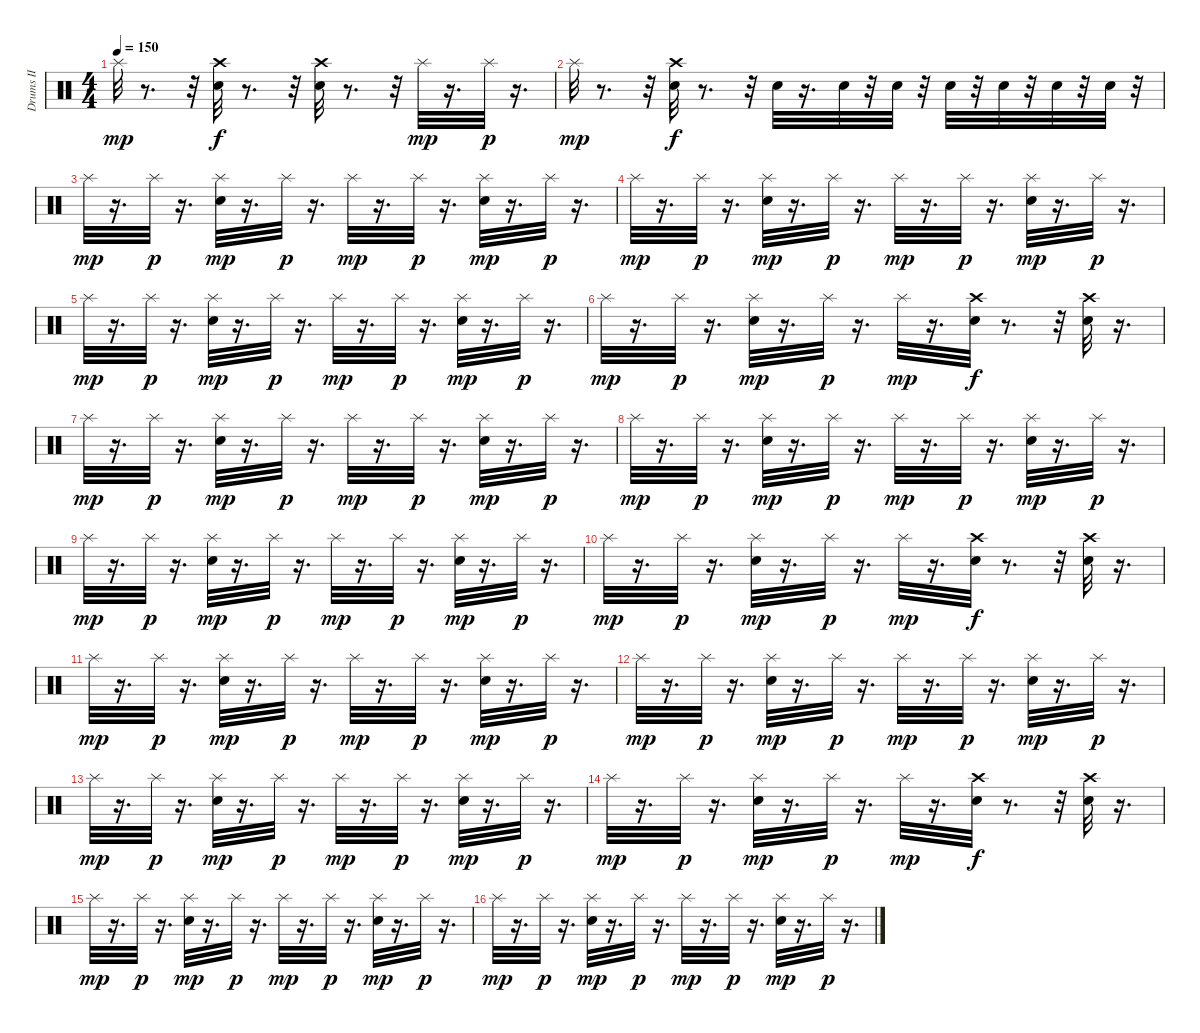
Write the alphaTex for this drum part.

\track ("Drums II" "Drums II") {instrument percussion}
\staff {score}
\articulation defaults
\ts (4 4)
\tempo 150
\clef neutral
\ks c "Splash (hit)".32{dy mp}
r.8{d} r.32 ("Crash high (hit)" "Snare (hit) 2").32{dy f} r.8{d} r.32 ("Crash high (hit)" "Snare (hit) 2").32 r.8{d} r.32 "Splash (hit)".32{dy mp} r.16{d} "Splash (hit)".32{dy p} r.16{d} |
"Splash (hit)".32{dy mp} r.8{d} r.32 ("Crash high (hit)" "Snare (hit) 2").32{dy f} r.8{d} r.32 "Snare (hit) 2".32 r.16{d} "Snare (hit) 2".32 r.32 "Snare (hit) 2".32 r.32 "Snare (hit) 2".32 r.32 "Snare (hit) 2".32 r.32 "Snare (hit) 2".32 r.32 "Snare (hit) 2".32 r.32 |
"Splash (hit)".32{dy mp} r.16{d} "Splash (hit)".32{dy p} r.16{d} ("Snare (hit) 2" "Splash (hit)").32{dy mp} r.16{d} "Splash (hit)".32{dy p} r.16{d} "Splash (hit)".32{dy mp} r.16{d} "Splash (hit)".32{dy p} r.16{d} ("Snare (hit) 2" "Splash (hit)").32{dy mp} r.16{d} "Splash (hit)".32{dy p} r.16{d} |
"Splash (hit)".32{dy mp} r.16{d} "Splash (hit)".32{dy p} r.16{d} ("Snare (hit) 2" "Splash (hit)").32{dy mp} r.16{d} "Splash (hit)".32{dy p} r.16{d} "Splash (hit)".32{dy mp} r.16{d} "Splash (hit)".32{dy p} r.16{d} ("Snare (hit) 2" "Splash (hit)").32{dy mp} r.16{d} "Splash (hit)".32{dy p} r.16{d} |
"Splash (hit)".32{dy mp} r.16{d} "Splash (hit)".32{dy p} r.16{d} ("Snare (hit) 2" "Splash (hit)").32{dy mp} r.16{d} "Splash (hit)".32{dy p} r.16{d} "Splash (hit)".32{dy mp} r.16{d} "Splash (hit)".32{dy p} r.16{d} ("Snare (hit) 2" "Splash (hit)").32{dy mp} r.16{d} "Splash (hit)".32{dy p} r.16{d} |
"Splash (hit)".32{dy mp} r.16{d} "Splash (hit)".32{dy p} r.16{d} ("Snare (hit) 2" "Splash (hit)").32{dy mp} r.16{d} "Splash (hit)".32{dy p} r.16{d} "Splash (hit)".32{dy mp} r.16{d} ("Crash high (hit)" "Snare (hit) 2").32{dy f} r.8{d} r.32 ("Crash high (hit)" "Snare (hit) 2").32 r.16{d} |
"Splash (hit)".32{dy mp} r.16{d} "Splash (hit)".32{dy p} r.16{d} ("Snare (hit) 2" "Splash (hit)").32{dy mp} r.16{d} "Splash (hit)".32{dy p} r.16{d} "Splash (hit)".32{dy mp} r.16{d} "Splash (hit)".32{dy p} r.16{d} ("Snare (hit) 2" "Splash (hit)").32{dy mp} r.16{d} "Splash (hit)".32{dy p} r.16{d} |
"Splash (hit)".32{dy mp} r.16{d} "Splash (hit)".32{dy p} r.16{d} ("Snare (hit) 2" "Splash (hit)").32{dy mp} r.16{d} "Splash (hit)".32{dy p} r.16{d} "Splash (hit)".32{dy mp} r.16{d} "Splash (hit)".32{dy p} r.16{d} ("Snare (hit) 2" "Splash (hit)").32{dy mp} r.16{d} "Splash (hit)".32{dy p} r.16{d} |
"Splash (hit)".32{dy mp} r.16{d} "Splash (hit)".32{dy p} r.16{d} ("Snare (hit) 2" "Splash (hit)").32{dy mp} r.16{d} "Splash (hit)".32{dy p} r.16{d} "Splash (hit)".32{dy mp} r.16{d} "Splash (hit)".32{dy p} r.16{d} ("Snare (hit) 2" "Splash (hit)").32{dy mp} r.16{d} "Splash (hit)".32{dy p} r.16{d} |
"Splash (hit)".32{dy mp} r.16{d} "Splash (hit)".32{dy p} r.16{d} ("Snare (hit) 2" "Splash (hit)").32{dy mp} r.16{d} "Splash (hit)".32{dy p} r.16{d} "Splash (hit)".32{dy mp} r.16{d} ("Crash high (hit)" "Snare (hit) 2").32{dy f} r.8{d} r.32 ("Crash high (hit)" "Snare (hit) 2").32 r.16{d} |
"Splash (hit)".32{dy mp} r.16{d} "Splash (hit)".32{dy p} r.16{d} ("Snare (hit) 2" "Splash (hit)").32{dy mp} r.16{d} "Splash (hit)".32{dy p} r.16{d} "Splash (hit)".32{dy mp} r.16{d} "Splash (hit)".32{dy p} r.16{d} ("Snare (hit) 2" "Splash (hit)").32{dy mp} r.16{d} "Splash (hit)".32{dy p} r.16{d} |
"Splash (hit)".32{dy mp} r.16{d} "Splash (hit)".32{dy p} r.16{d} ("Snare (hit) 2" "Splash (hit)").32{dy mp} r.16{d} "Splash (hit)".32{dy p} r.16{d} "Splash (hit)".32{dy mp} r.16{d} "Splash (hit)".32{dy p} r.16{d} ("Snare (hit) 2" "Splash (hit)").32{dy mp} r.16{d} "Splash (hit)".32{dy p} r.16{d} |
"Splash (hit)".32{dy mp} r.16{d} "Splash (hit)".32{dy p} r.16{d} ("Snare (hit) 2" "Splash (hit)").32{dy mp} r.16{d} "Splash (hit)".32{dy p} r.16{d} "Splash (hit)".32{dy mp} r.16{d} "Splash (hit)".32{dy p} r.16{d} ("Snare (hit) 2" "Splash (hit)").32{dy mp} r.16{d} "Splash (hit)".32{dy p} r.16{d} |
"Splash (hit)".32{dy mp} r.16{d} "Splash (hit)".32{dy p} r.16{d} ("Snare (hit) 2" "Splash (hit)").32{dy mp} r.16{d} "Splash (hit)".32{dy p} r.16{d} "Splash (hit)".32{dy mp} r.16{d} ("Crash high (hit)" "Snare (hit) 2").32{dy f} r.8{d} r.32 ("Crash high (hit)" "Snare (hit) 2").32 r.16{d} |
"Splash (hit)".32{dy mp} r.16{d} "Splash (hit)".32{dy p} r.16{d} ("Snare (hit) 2" "Splash (hit)").32{dy mp} r.16{d} "Splash (hit)".32{dy p} r.16{d} "Splash (hit)".32{dy mp} r.16{d} "Splash (hit)".32{dy p} r.16{d} ("Snare (hit) 2" "Splash (hit)").32{dy mp} r.16{d} "Splash (hit)".32{dy p} r.16{d} |
"Splash (hit)".32{dy mp} r.16{d} "Splash (hit)".32{dy p} r.16{d} ("Snare (hit) 2" "Splash (hit)").32{dy mp} r.16{d} "Splash (hit)".32{dy p} r.16{d} "Splash (hit)".32{dy mp} r.16{d} "Splash (hit)".32{dy p} r.16{d} ("Snare (hit) 2" "Splash (hit)").32{dy mp} r.16{d} "Splash (hit)".32{dy p} r.16{d}
